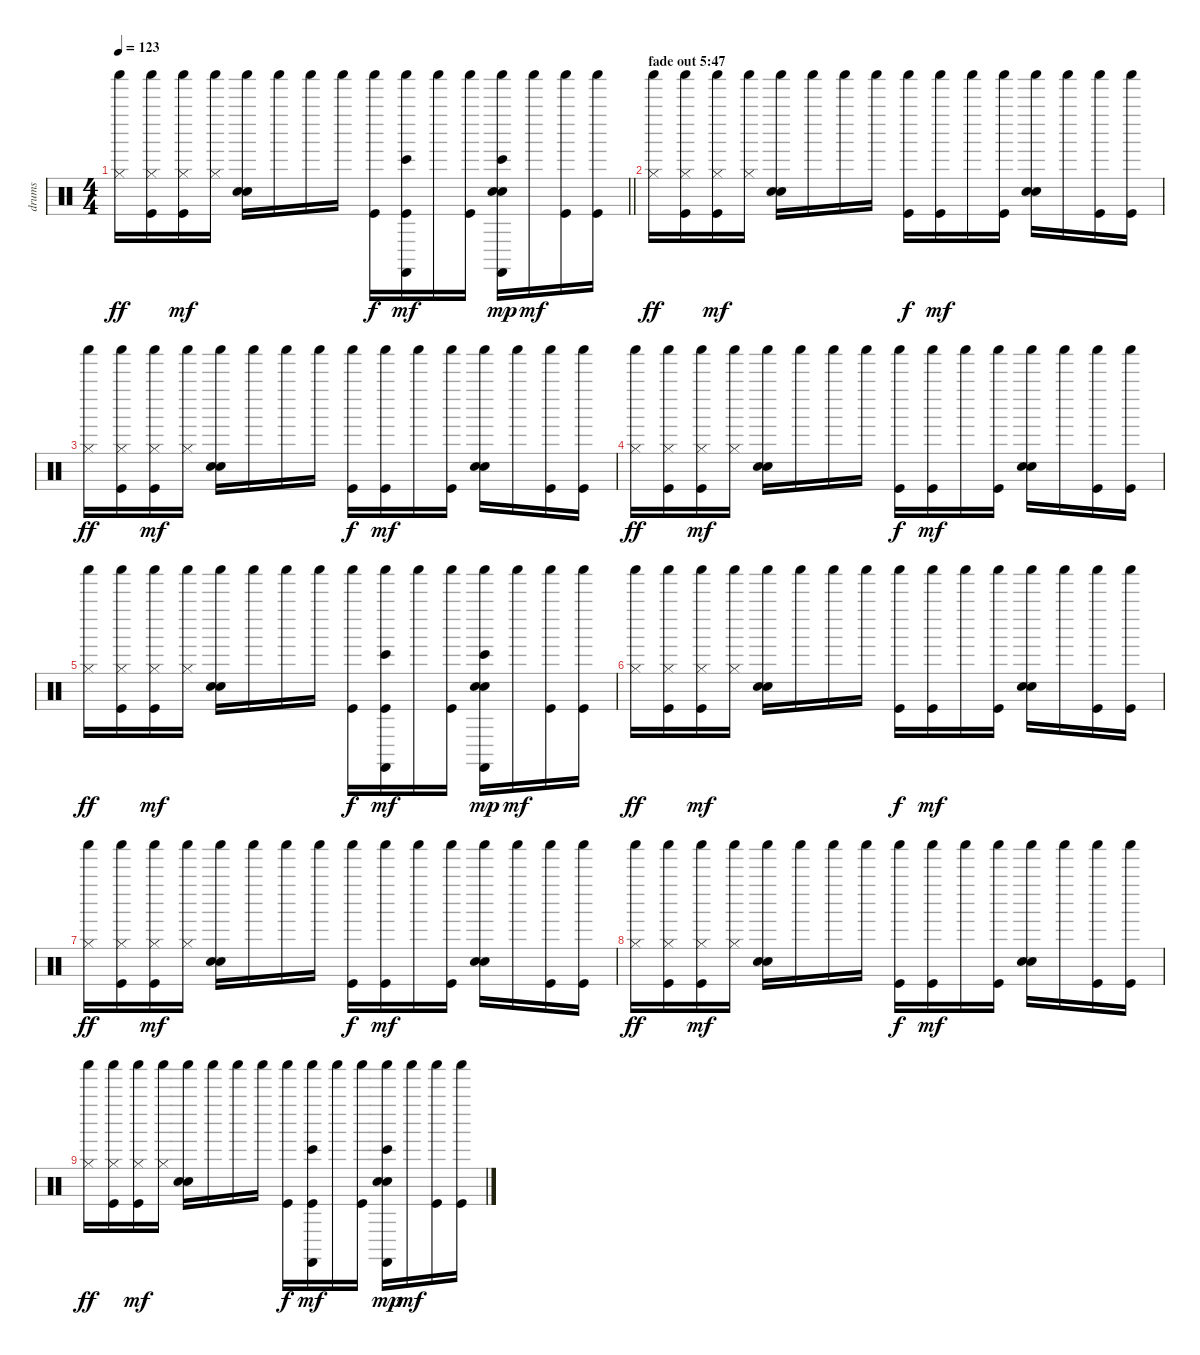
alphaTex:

\track ("drums" "drums") {instrument percussion}
\staff {score}
\articulation defaults
\ts (4 4)
\tempo 123
\clef neutral
\barLineRight lightlight
\ks c
("Shaker (hit)" "Hi-Hat (closed)").16{dy ff} ("Shaker (hit)" "Hi-Hat (closed)" "Kick (hit)").16 ("Shaker (hit)" "Hi-Hat (closed)" "Kick (hit)").16{dy mf} ("Shaker (hit)" "Hi-Hat (closed)").16 ("Shaker (hit)" "Electric Snare (hit)" "Hand Clap (hit)").16 "Shaker (hit)".16 "Shaker (hit)".16 "Shaker (hit)".16 ("Shaker (hit)" "Kick (hit)").16{dy f} ("Shaker (hit)" "Bongo High (hit)" "Castanets (hit)" "Kick (hit)").16{dy mf} "Shaker (hit)".16 ("Shaker (hit)" "Kick (hit)").16 ("Shaker (hit)" "Electric Snare (hit)" "Hand Clap (hit)" "Bongo High (hit)" "Castanets (hit)").16{dy mp} "Shaker (hit)".16{dy mf} ("Shaker (hit)" "Kick (hit)").16 ("Shaker (hit)" "Kick (hit)").16 |
\section ("" "fade out 5:47")
("Shaker (hit)" "Hi-Hat (closed)").16{dy ff volume 7} ("Shaker (hit)" "Hi-Hat (closed)" "Kick (hit)").16 ("Shaker (hit)" "Hi-Hat (closed)" "Kick (hit)").16{dy mf} ("Shaker (hit)" "Hi-Hat (closed)").16 ("Shaker (hit)" "Electric Snare (hit)" "Hand Clap (hit)").16 "Shaker (hit)".16 "Shaker (hit)".16 "Shaker (hit)".16 ("Shaker (hit)" "Kick (hit)").16{dy f} ("Shaker (hit)" "Kick (hit)").16{dy mf} "Shaker (hit)".16 ("Shaker (hit)" "Kick (hit)").16 ("Shaker (hit)" "Electric Snare (hit)" "Hand Clap (hit)").16 "Shaker (hit)".16 ("Shaker (hit)" "Kick (hit)").16 ("Shaker (hit)" "Kick (hit)").16 |
("Shaker (hit)" "Hi-Hat (closed)").16{dy ff} ("Shaker (hit)" "Hi-Hat (closed)" "Kick (hit)").16 ("Shaker (hit)" "Hi-Hat (closed)" "Kick (hit)").16{dy mf} ("Shaker (hit)" "Hi-Hat (closed)").16 ("Shaker (hit)" "Electric Snare (hit)" "Hand Clap (hit)").16 "Shaker (hit)".16 "Shaker (hit)".16 "Shaker (hit)".16 ("Shaker (hit)" "Kick (hit)").16{dy f} ("Shaker (hit)" "Kick (hit)").16{dy mf} "Shaker (hit)".16 ("Shaker (hit)" "Kick (hit)").16 ("Shaker (hit)" "Electric Snare (hit)" "Hand Clap (hit)").16 "Shaker (hit)".16 ("Shaker (hit)" "Kick (hit)").16 ("Shaker (hit)" "Kick (hit)").16 |
("Shaker (hit)" "Hi-Hat (closed)").16{dy ff} ("Shaker (hit)" "Hi-Hat (closed)" "Kick (hit)").16 ("Shaker (hit)" "Hi-Hat (closed)" "Kick (hit)").16{dy mf} ("Shaker (hit)" "Hi-Hat (closed)").16 ("Shaker (hit)" "Electric Snare (hit)" "Hand Clap (hit)").16 "Shaker (hit)".16 "Shaker (hit)".16 "Shaker (hit)".16 ("Shaker (hit)" "Kick (hit)").16{dy f} ("Shaker (hit)" "Kick (hit)").16{dy mf} "Shaker (hit)".16 ("Shaker (hit)" "Kick (hit)").16 ("Shaker (hit)" "Electric Snare (hit)" "Hand Clap (hit)").16 "Shaker (hit)".16 ("Shaker (hit)" "Kick (hit)").16 ("Shaker (hit)" "Kick (hit)").16 |
("Shaker (hit)" "Hi-Hat (closed)").16{dy ff} ("Shaker (hit)" "Hi-Hat (closed)" "Kick (hit)").16 ("Shaker (hit)" "Hi-Hat (closed)" "Kick (hit)").16{dy mf} ("Shaker (hit)" "Hi-Hat (closed)").16 ("Shaker (hit)" "Electric Snare (hit)" "Hand Clap (hit)").16 "Shaker (hit)".16 "Shaker (hit)".16 "Shaker (hit)".16 ("Shaker (hit)" "Kick (hit)").16{dy f} ("Shaker (hit)" "Bongo High (hit)" "Castanets (hit)" "Kick (hit)").16{dy mf} "Shaker (hit)".16 ("Shaker (hit)" "Kick (hit)").16 ("Shaker (hit)" "Electric Snare (hit)" "Hand Clap (hit)" "Bongo High (hit)" "Castanets (hit)").16{dy mp} "Shaker (hit)".16{dy mf} ("Shaker (hit)" "Kick (hit)").16 ("Shaker (hit)" "Kick (hit)").16 |
("Shaker (hit)" "Hi-Hat (closed)").16{dy ff volume 0} ("Shaker (hit)" "Hi-Hat (closed)" "Kick (hit)").16 ("Shaker (hit)" "Hi-Hat (closed)" "Kick (hit)").16{dy mf} ("Shaker (hit)" "Hi-Hat (closed)").16 ("Shaker (hit)" "Electric Snare (hit)" "Hand Clap (hit)").16 "Shaker (hit)".16 "Shaker (hit)".16 "Shaker (hit)".16 ("Shaker (hit)" "Kick (hit)").16{dy f} ("Shaker (hit)" "Kick (hit)").16{dy mf} "Shaker (hit)".16 ("Shaker (hit)" "Kick (hit)").16 ("Shaker (hit)" "Electric Snare (hit)" "Hand Clap (hit)").16 "Shaker (hit)".16 ("Shaker (hit)" "Kick (hit)").16 ("Shaker (hit)" "Kick (hit)").16 |
("Shaker (hit)" "Hi-Hat (closed)").16{dy ff} ("Shaker (hit)" "Hi-Hat (closed)" "Kick (hit)").16 ("Shaker (hit)" "Hi-Hat (closed)" "Kick (hit)").16{dy mf} ("Shaker (hit)" "Hi-Hat (closed)").16 ("Shaker (hit)" "Electric Snare (hit)" "Hand Clap (hit)").16 "Shaker (hit)".16 "Shaker (hit)".16 "Shaker (hit)".16 ("Shaker (hit)" "Kick (hit)").16{dy f} ("Shaker (hit)" "Kick (hit)").16{dy mf} "Shaker (hit)".16 ("Shaker (hit)" "Kick (hit)").16 ("Shaker (hit)" "Electric Snare (hit)" "Hand Clap (hit)").16 "Shaker (hit)".16 ("Shaker (hit)" "Kick (hit)").16 ("Shaker (hit)" "Kick (hit)").16 |
("Shaker (hit)" "Hi-Hat (closed)").16{dy ff} ("Shaker (hit)" "Hi-Hat (closed)" "Kick (hit)").16 ("Shaker (hit)" "Hi-Hat (closed)" "Kick (hit)").16{dy mf} ("Shaker (hit)" "Hi-Hat (closed)").16 ("Shaker (hit)" "Electric Snare (hit)" "Hand Clap (hit)").16 "Shaker (hit)".16 "Shaker (hit)".16 "Shaker (hit)".16 ("Shaker (hit)" "Kick (hit)").16{dy f} ("Shaker (hit)" "Kick (hit)").16{dy mf} "Shaker (hit)".16 ("Shaker (hit)" "Kick (hit)").16 ("Shaker (hit)" "Electric Snare (hit)" "Hand Clap (hit)").16 "Shaker (hit)".16 ("Shaker (hit)" "Kick (hit)").16 ("Shaker (hit)" "Kick (hit)").16 |
("Shaker (hit)" "Hi-Hat (closed)").16{dy ff} ("Shaker (hit)" "Hi-Hat (closed)" "Kick (hit)").16 ("Shaker (hit)" "Hi-Hat (closed)" "Kick (hit)").16{dy mf} ("Shaker (hit)" "Hi-Hat (closed)").16 ("Shaker (hit)" "Electric Snare (hit)" "Hand Clap (hit)").16 "Shaker (hit)".16 "Shaker (hit)".16 "Shaker (hit)".16 ("Shaker (hit)" "Kick (hit)").16{dy f} ("Shaker (hit)" "Bongo High (hit)" "Castanets (hit)" "Kick (hit)").16{dy mf} "Shaker (hit)".16 ("Shaker (hit)" "Kick (hit)").16 ("Shaker (hit)" "Electric Snare (hit)" "Hand Clap (hit)" "Bongo High (hit)" "Castanets (hit)").16{dy mp} "Shaker (hit)".16{dy mf} ("Shaker (hit)" "Kick (hit)").16 ("Shaker (hit)" "Kick (hit)").16
